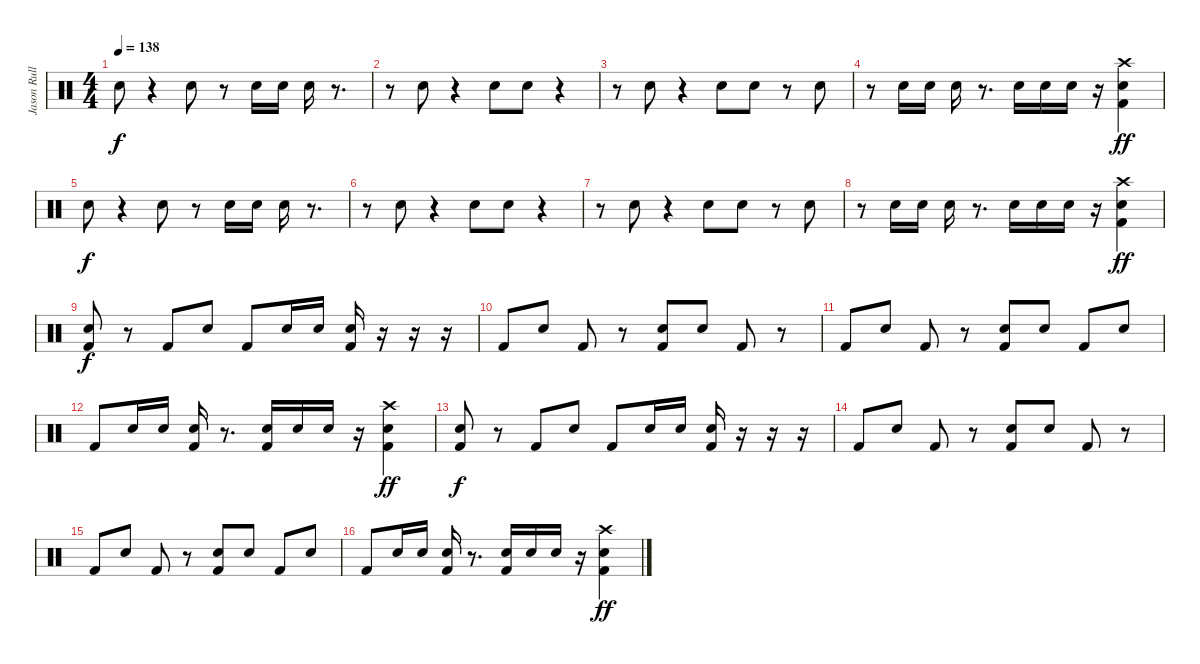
\track ("Jason Rullo" "Jason Rull") {instrument percussion}
\staff {score}
\articulation defaults
\ts (4 4)
\tempo 138
\clef neutral
\ks c "Electric Snare (hit)".8{dy f}
r.4 "Electric Snare (hit)".8 r.8 "Electric Snare (hit)".16 "Electric Snare (hit)".16 "Electric Snare (hit)".16 r.8{d} |
r.8 "Electric Snare (hit)".8 r.4 "Electric Snare (hit)".8 "Electric Snare (hit)".8 r.4 |
r.8 "Electric Snare (hit)".8 r.4 "Electric Snare (hit)".8 "Electric Snare (hit)".8 r.8 "Electric Snare (hit)".8 |
r.8 "Electric Snare (hit)".16 "Electric Snare (hit)".16 "Electric Snare (hit)".16 r.8{d} "Electric Snare (hit)".16 "Electric Snare (hit)".16 "Electric Snare (hit)".16 r.16 ("Kick (hit) 2" "Electric Snare (hit)" "Crash high (hit)").4{dy ff} |
"Electric Snare (hit)".8{dy f} r.4 "Electric Snare (hit)".8 r.8 "Electric Snare (hit)".16 "Electric Snare (hit)".16 "Electric Snare (hit)".16 r.8{d} |
r.8 "Electric Snare (hit)".8 r.4 "Electric Snare (hit)".8 "Electric Snare (hit)".8 r.4 |
r.8 "Electric Snare (hit)".8 r.4 "Electric Snare (hit)".8 "Electric Snare (hit)".8 r.8 "Electric Snare (hit)".8 |
r.8 "Electric Snare (hit)".16 "Electric Snare (hit)".16 "Electric Snare (hit)".16 r.8{d} "Electric Snare (hit)".16 "Electric Snare (hit)".16 "Electric Snare (hit)".16 r.16 ("Kick (hit) 2" "Electric Snare (hit)" "Crash high (hit)").4{dy ff} |
("Kick (hit) 2" "Electric Snare (hit)").8{dy f} r.8 "Kick (hit) 2".8 "Electric Snare (hit)".8 "Kick (hit) 2".8 "Electric Snare (hit)".16 "Electric Snare (hit)".16 ("Kick (hit) 2" "Electric Snare (hit)").16 r.16 r.16 r.16 |
"Kick (hit) 2".8 "Electric Snare (hit)".8 "Kick (hit) 2".8 r.8 ("Kick (hit) 2" "Electric Snare (hit)").8 "Electric Snare (hit)".8 "Kick (hit) 2".8 r.8 |
"Kick (hit) 2".8 "Electric Snare (hit)".8 "Kick (hit) 2".8 r.8 ("Kick (hit) 2" "Electric Snare (hit)").8 "Electric Snare (hit)".8 "Kick (hit) 2".8 "Electric Snare (hit)".8 |
"Kick (hit) 2".8 "Electric Snare (hit)".16 "Electric Snare (hit)".16 ("Kick (hit) 2" "Electric Snare (hit)").16 r.8{d} ("Kick (hit) 2" "Electric Snare (hit)").16 "Electric Snare (hit)".16 "Electric Snare (hit)".16 r.16 ("Kick (hit) 2" "Electric Snare (hit)" "Crash high (hit)").4{dy ff} |
("Kick (hit) 2" "Electric Snare (hit)").8{dy f} r.8 "Kick (hit) 2".8 "Electric Snare (hit)".8 "Kick (hit) 2".8 "Electric Snare (hit)".16 "Electric Snare (hit)".16 ("Kick (hit) 2" "Electric Snare (hit)").16 r.16 r.16 r.16 |
"Kick (hit) 2".8 "Electric Snare (hit)".8 "Kick (hit) 2".8 r.8 ("Kick (hit) 2" "Electric Snare (hit)").8 "Electric Snare (hit)".8 "Kick (hit) 2".8 r.8 |
"Kick (hit) 2".8 "Electric Snare (hit)".8 "Kick (hit) 2".8 r.8 ("Kick (hit) 2" "Electric Snare (hit)").8 "Electric Snare (hit)".8 "Kick (hit) 2".8 "Electric Snare (hit)".8 |
"Kick (hit) 2".8 "Electric Snare (hit)".16 "Electric Snare (hit)".16 ("Kick (hit) 2" "Electric Snare (hit)").16 r.8{d} ("Kick (hit) 2" "Electric Snare (hit)").16 "Electric Snare (hit)".16 "Electric Snare (hit)".16 r.16 ("Kick (hit) 2" "Electric Snare (hit)" "Crash high (hit)").4{dy ff}
